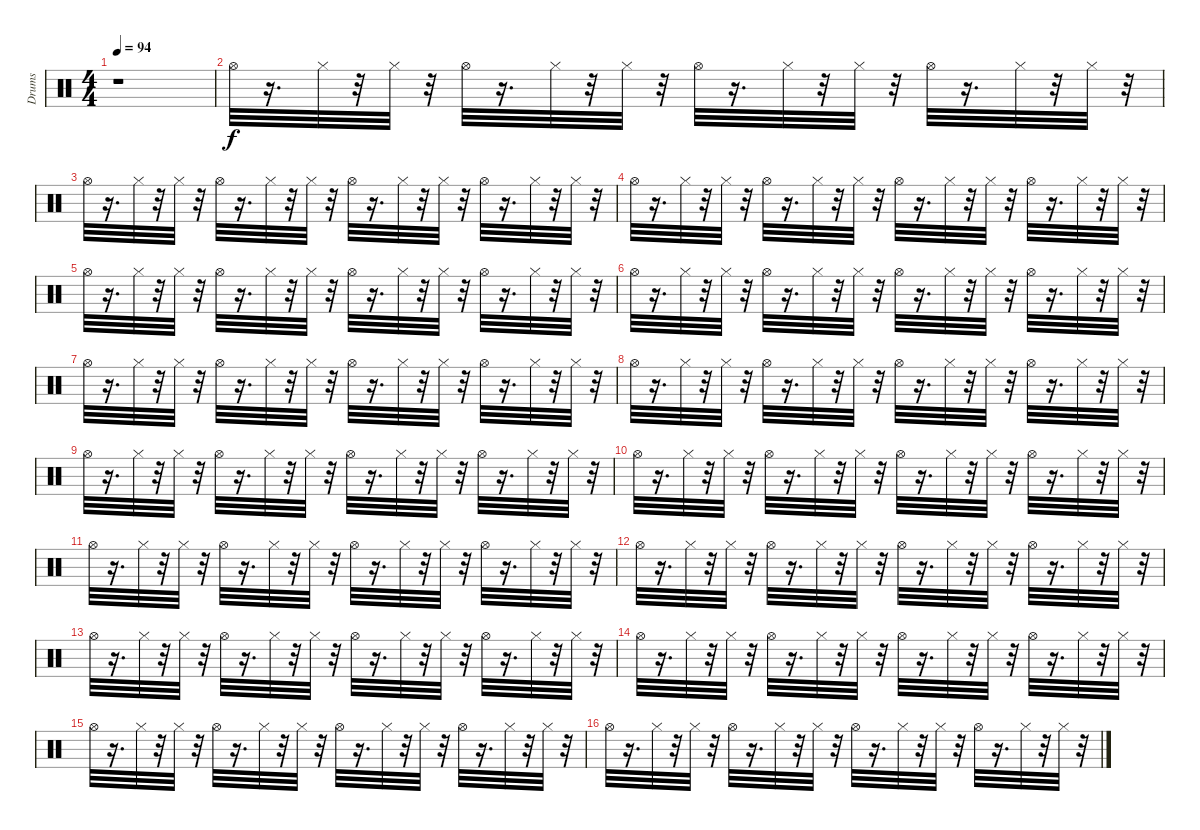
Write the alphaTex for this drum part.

\track ("Drums" "Drums") {instrument percussion}
\staff {score}
\articulation defaults
\ts (4 4)
\tempo 94
\clef neutral
\ks c
r.1{dy f} |
"Hi-Hat (open)".32 r.16{d} "Hi-Hat (closed)".32 r.32 "Hi-Hat (closed)".32 r.32 "Hi-Hat (open)".32 r.16{d} "Hi-Hat (closed)".32 r.32 "Hi-Hat (closed)".32 r.32 "Hi-Hat (open)".32 r.16{d} "Hi-Hat (closed)".32 r.32 "Hi-Hat (closed)".32 r.32 "Hi-Hat (open)".32 r.16{d} "Hi-Hat (closed)".32 r.32 "Hi-Hat (closed)".32 r.32 |
"Hi-Hat (open)".32 r.16{d} "Hi-Hat (closed)".32 r.32 "Hi-Hat (closed)".32 r.32 "Hi-Hat (open)".32 r.16{d} "Hi-Hat (closed)".32 r.32 "Hi-Hat (closed)".32 r.32 "Hi-Hat (open)".32 r.16{d} "Hi-Hat (closed)".32 r.32 "Hi-Hat (closed)".32 r.32 "Hi-Hat (open)".32 r.16{d} "Hi-Hat (closed)".32 r.32 "Hi-Hat (closed)".32 r.32 |
"Hi-Hat (open)".32 r.16{d} "Hi-Hat (closed)".32 r.32 "Hi-Hat (closed)".32 r.32 "Hi-Hat (open)".32 r.16{d} "Hi-Hat (closed)".32 r.32 "Hi-Hat (closed)".32 r.32 "Hi-Hat (open)".32 r.16{d} "Hi-Hat (closed)".32 r.32 "Hi-Hat (closed)".32 r.32 "Hi-Hat (open)".32 r.16{d} "Hi-Hat (closed)".32 r.32 "Hi-Hat (closed)".32 r.32 |
"Hi-Hat (open)".32 r.16{d} "Hi-Hat (closed)".32 r.32 "Hi-Hat (closed)".32 r.32 "Hi-Hat (open)".32 r.16{d} "Hi-Hat (closed)".32 r.32 "Hi-Hat (closed)".32 r.32 "Hi-Hat (open)".32 r.16{d} "Hi-Hat (closed)".32 r.32 "Hi-Hat (closed)".32 r.32 "Hi-Hat (open)".32 r.16{d} "Hi-Hat (closed)".32 r.32 "Hi-Hat (closed)".32 r.32 |
"Hi-Hat (open)".32 r.16{d} "Hi-Hat (closed)".32 r.32 "Hi-Hat (closed)".32 r.32 "Hi-Hat (open)".32 r.16{d} "Hi-Hat (closed)".32 r.32 "Hi-Hat (closed)".32 r.32 "Hi-Hat (open)".32 r.16{d} "Hi-Hat (closed)".32 r.32 "Hi-Hat (closed)".32 r.32 "Hi-Hat (open)".32 r.16{d} "Hi-Hat (closed)".32 r.32 "Hi-Hat (closed)".32 r.32 |
"Hi-Hat (open)".32 r.16{d} "Hi-Hat (closed)".32 r.32 "Hi-Hat (closed)".32 r.32 "Hi-Hat (open)".32 r.16{d} "Hi-Hat (closed)".32 r.32 "Hi-Hat (closed)".32 r.32 "Hi-Hat (open)".32 r.16{d} "Hi-Hat (closed)".32 r.32 "Hi-Hat (closed)".32 r.32 "Hi-Hat (open)".32 r.16{d} "Hi-Hat (closed)".32 r.32 "Hi-Hat (closed)".32 r.32 |
"Hi-Hat (open)".32 r.16{d} "Hi-Hat (closed)".32 r.32 "Hi-Hat (closed)".32 r.32 "Hi-Hat (open)".32 r.16{d} "Hi-Hat (closed)".32 r.32 "Hi-Hat (closed)".32 r.32 "Hi-Hat (open)".32 r.16{d} "Hi-Hat (closed)".32 r.32 "Hi-Hat (closed)".32 r.32 "Hi-Hat (open)".32 r.16{d} "Hi-Hat (closed)".32 r.32 "Hi-Hat (closed)".32 r.32 |
"Hi-Hat (open)".32 r.16{d} "Hi-Hat (closed)".32 r.32 "Hi-Hat (closed)".32 r.32 "Hi-Hat (open)".32 r.16{d} "Hi-Hat (closed)".32 r.32 "Hi-Hat (closed)".32 r.32 "Hi-Hat (open)".32 r.16{d} "Hi-Hat (closed)".32 r.32 "Hi-Hat (closed)".32 r.32 "Hi-Hat (open)".32 r.16{d} "Hi-Hat (closed)".32 r.32 "Hi-Hat (closed)".32 r.32 |
"Hi-Hat (open)".32 r.16{d} "Hi-Hat (closed)".32 r.32 "Hi-Hat (closed)".32 r.32 "Hi-Hat (open)".32 r.16{d} "Hi-Hat (closed)".32 r.32 "Hi-Hat (closed)".32 r.32 "Hi-Hat (open)".32 r.16{d} "Hi-Hat (closed)".32 r.32 "Hi-Hat (closed)".32 r.32 "Hi-Hat (open)".32 r.16{d} "Hi-Hat (closed)".32 r.32 "Hi-Hat (closed)".32 r.32 |
"Hi-Hat (open)".32 r.16{d} "Hi-Hat (closed)".32 r.32 "Hi-Hat (closed)".32 r.32 "Hi-Hat (open)".32 r.16{d} "Hi-Hat (closed)".32 r.32 "Hi-Hat (closed)".32 r.32 "Hi-Hat (open)".32 r.16{d} "Hi-Hat (closed)".32 r.32 "Hi-Hat (closed)".32 r.32 "Hi-Hat (open)".32 r.16{d} "Hi-Hat (closed)".32 r.32 "Hi-Hat (closed)".32 r.32 |
"Hi-Hat (open)".32 r.16{d} "Hi-Hat (closed)".32 r.32 "Hi-Hat (closed)".32 r.32 "Hi-Hat (open)".32 r.16{d} "Hi-Hat (closed)".32 r.32 "Hi-Hat (closed)".32 r.32 "Hi-Hat (open)".32 r.16{d} "Hi-Hat (closed)".32 r.32 "Hi-Hat (closed)".32 r.32 "Hi-Hat (open)".32 r.16{d} "Hi-Hat (closed)".32 r.32 "Hi-Hat (closed)".32 r.32 |
"Hi-Hat (open)".32 r.16{d} "Hi-Hat (closed)".32 r.32 "Hi-Hat (closed)".32 r.32 "Hi-Hat (open)".32 r.16{d} "Hi-Hat (closed)".32 r.32 "Hi-Hat (closed)".32 r.32 "Hi-Hat (open)".32 r.16{d} "Hi-Hat (closed)".32 r.32 "Hi-Hat (closed)".32 r.32 "Hi-Hat (open)".32 r.16{d} "Hi-Hat (closed)".32 r.32 "Hi-Hat (closed)".32 r.32 |
"Hi-Hat (open)".32 r.16{d} "Hi-Hat (closed)".32 r.32 "Hi-Hat (closed)".32 r.32 "Hi-Hat (open)".32 r.16{d} "Hi-Hat (closed)".32 r.32 "Hi-Hat (closed)".32 r.32 "Hi-Hat (open)".32 r.16{d} "Hi-Hat (closed)".32 r.32 "Hi-Hat (closed)".32 r.32 "Hi-Hat (open)".32 r.16{d} "Hi-Hat (closed)".32 r.32 "Hi-Hat (closed)".32 r.32 |
"Hi-Hat (open)".32 r.16{d} "Hi-Hat (closed)".32 r.32 "Hi-Hat (closed)".32 r.32 "Hi-Hat (open)".32 r.16{d} "Hi-Hat (closed)".32 r.32 "Hi-Hat (closed)".32 r.32 "Hi-Hat (open)".32 r.16{d} "Hi-Hat (closed)".32 r.32 "Hi-Hat (closed)".32 r.32 "Hi-Hat (open)".32 r.16{d} "Hi-Hat (closed)".32 r.32 "Hi-Hat (closed)".32 r.32 |
"Hi-Hat (open)".32 r.16{d} "Hi-Hat (closed)".32 r.32 "Hi-Hat (closed)".32 r.32 "Hi-Hat (open)".32 r.16{d} "Hi-Hat (closed)".32 r.32 "Hi-Hat (closed)".32 r.32 "Hi-Hat (open)".32 r.16{d} "Hi-Hat (closed)".32 r.32 "Hi-Hat (closed)".32 r.32 "Hi-Hat (open)".32 r.16{d} "Hi-Hat (closed)".32 r.32 "Hi-Hat (closed)".32 r.32
